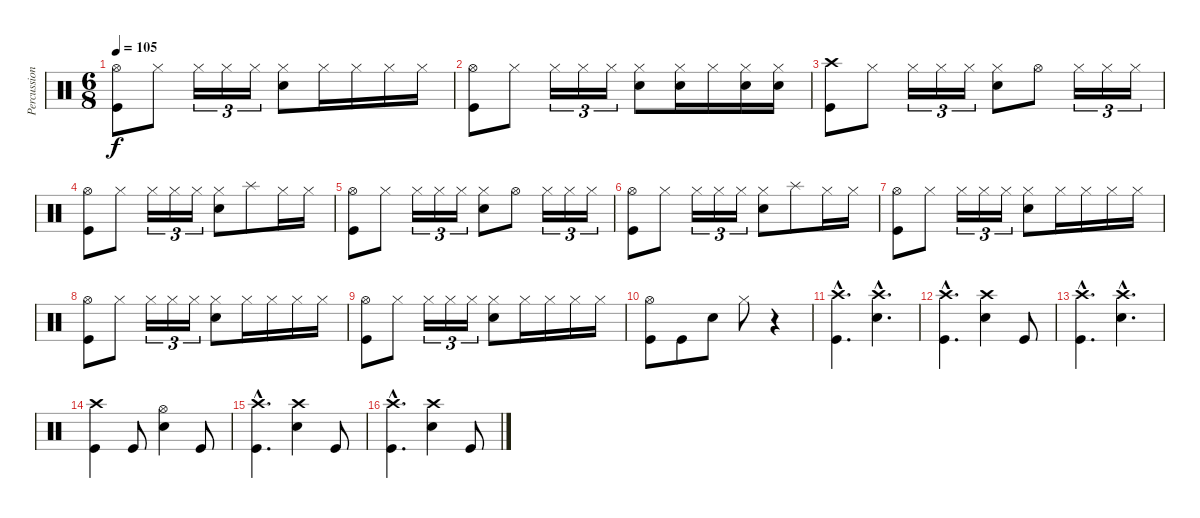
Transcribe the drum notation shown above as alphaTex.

\track ("Percussion" "Percussion") {instrument percussion}
\staff {score}
\articulation defaults
\ts (6 8)
\tempo 105
\clef neutral
\ks c
("Hi-Hat (open)" "Kick (hit)").8{dy f} "Hi-Hat (closed)".8 "Hi-Hat (closed)".16{tu (3 2)} "Hi-Hat (closed)".16{tu (3 2)} "Hi-Hat (closed)".16{tu (3 2)} ("Hi-Hat (closed)" "Electric Snare (hit)").8 "Hi-Hat (closed)".16 "Hi-Hat (closed)".16 "Hi-Hat (closed)".16 "Hi-Hat (closed)".16 |
("Hi-Hat (open)" "Kick (hit)").8 "Hi-Hat (closed)".8 "Hi-Hat (closed)".16{tu (3 2)} "Hi-Hat (closed)".16{tu (3 2)} "Hi-Hat (closed)".16{tu (3 2)} ("Hi-Hat (closed)" "Electric Snare (hit)").8 ("Hi-Hat (closed)" "Electric Snare (hit)").16 "Hi-Hat (closed)".16 ("Hi-Hat (closed)" "Electric Snare (hit)").16 ("Hi-Hat (closed)" "Electric Snare (hit)").16 |
("Crash high (hit)" "Kick (hit)").8 "Hi-Hat (closed)".8 "Hi-Hat (closed)".16{tu (3 2)} "Hi-Hat (closed)".16{tu (3 2)} "Hi-Hat (closed)".16{tu (3 2)} ("Hi-Hat (closed)" "Electric Snare (hit)").8 "Hi-Hat (open)".8 "Hi-Hat (closed)".16{tu (3 2)} "Hi-Hat (closed)".16{tu (3 2)} "Hi-Hat (closed)".16{tu (3 2)} |
("Hi-Hat (open)" "Kick (hit)").8 "Hi-Hat (closed)".8 "Hi-Hat (closed)".16{tu (3 2)} "Hi-Hat (closed)".16{tu (3 2)} "Hi-Hat (closed)".16{tu (3 2)} ("Hi-Hat (closed)" "Electric Snare (hit)").8 "Splash (hit)".8 "Hi-Hat (closed)".16 "Hi-Hat (closed)".16 |
("Hi-Hat (open)" "Kick (hit)").8 "Hi-Hat (closed)".8 "Hi-Hat (closed)".16{tu (3 2)} "Hi-Hat (closed)".16{tu (3 2)} "Hi-Hat (closed)".16{tu (3 2)} ("Hi-Hat (closed)" "Electric Snare (hit)").8 "Hi-Hat (open)".8 "Hi-Hat (closed)".16{tu (3 2)} "Hi-Hat (closed)".16{tu (3 2)} "Hi-Hat (closed)".16{tu (3 2)} |
("Hi-Hat (open)" "Kick (hit)").8 "Hi-Hat (closed)".8 "Hi-Hat (closed)".16{tu (3 2)} "Hi-Hat (closed)".16{tu (3 2)} "Hi-Hat (closed)".16{tu (3 2)} ("Hi-Hat (closed)" "Electric Snare (hit)").8 "Splash (hit)".8 "Hi-Hat (closed)".16 "Hi-Hat (closed)".16 |
("Hi-Hat (open)" "Kick (hit)").8 "Hi-Hat (closed)".8 "Hi-Hat (closed)".16{tu (3 2)} "Hi-Hat (closed)".16{tu (3 2)} "Hi-Hat (closed)".16{tu (3 2)} ("Hi-Hat (closed)" "Electric Snare (hit)").8 "Hi-Hat (closed)".16 "Hi-Hat (closed)".16 "Hi-Hat (closed)".16 "Hi-Hat (closed)".16 |
("Hi-Hat (open)" "Kick (hit)").8 "Hi-Hat (closed)".8 "Hi-Hat (closed)".16{tu (3 2)} "Hi-Hat (closed)".16{tu (3 2)} "Hi-Hat (closed)".16{tu (3 2)} ("Hi-Hat (closed)" "Electric Snare (hit)").8 "Hi-Hat (closed)".16 "Hi-Hat (closed)".16 "Hi-Hat (closed)".16 "Hi-Hat (closed)".16 |
("Hi-Hat (open)" "Kick (hit)").8 "Hi-Hat (closed)".8 "Hi-Hat (closed)".16{tu (3 2)} "Hi-Hat (closed)".16{tu (3 2)} "Hi-Hat (closed)".16{tu (3 2)} ("Hi-Hat (closed)" "Electric Snare (hit)").8 "Hi-Hat (closed)".16 "Hi-Hat (closed)".16 "Hi-Hat (closed)".16 "Hi-Hat (closed)".16 |
("Hi-Hat (open)" "Kick (hit)").8 "Kick (hit)".8 "Electric Snare (hit)".8 "Hi-Hat (closed)".8 r.4 |
("Crash high (hit)"{hac} "Kick (hit)"{hac}).4{d} ("Crash high (hit)"{hac} "Electric Snare (hit)"{hac}).4{d} |
("Crash high (hit)"{hac} "Kick (hit)"{hac}).4{d} ("Crash high (hit)" "Electric Snare (hit)").4 "Kick (hit)".8 |
("Crash high (hit)"{hac} "Kick (hit)"{hac}).4{d} ("Crash high (hit)"{hac} "Electric Snare (hit)"{hac}).4{d} |
("Crash high (hit)" "Kick (hit)").4 "Kick (hit)".8 ("Hi-Hat (open)" "Electric Snare (hit)").4 "Kick (hit)".8 |
("Crash high (hit)"{hac} "Kick (hit)"{hac}).4{d} ("Crash high (hit)" "Electric Snare (hit)").4 "Kick (hit)".8 |
("Crash high (hit)"{hac} "Kick (hit)"{hac}).4{d} ("Crash high (hit)" "Electric Snare (hit)").4 "Kick (hit)".8
